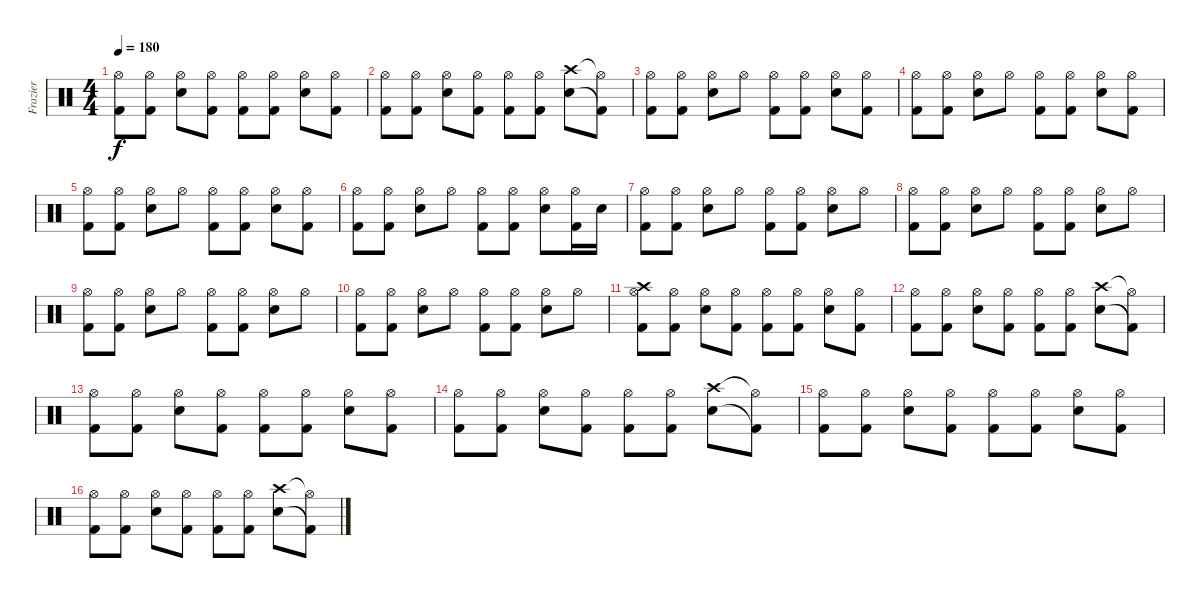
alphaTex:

\track ("Frazier" "Frazier") {instrument percussion}
\staff {score}
\articulation defaults
\ts (4 4)
\tempo 180
\clef neutral
\ks c
("Hi-Hat (open)" "Kick (hit) 2").8{dy f} ("Hi-Hat (open)" "Kick (hit) 2").8 ("Hi-Hat (open)" "Electric Snare (hit)").8 ("Hi-Hat (open)" "Kick (hit) 2").8 ("Hi-Hat (open)" "Kick (hit) 2").8 ("Hi-Hat (open)" "Kick (hit) 2").8 ("Hi-Hat (open)" "Electric Snare (hit)").8 ("Hi-Hat (open)" "Kick (hit) 2").8 |
("Hi-Hat (open)" "Kick (hit) 2").8 ("Hi-Hat (open)" "Kick (hit) 2").8 ("Hi-Hat (open)" "Electric Snare (hit)").8 ("Hi-Hat (open)" "Kick (hit) 2").8 ("Hi-Hat (open)" "Kick (hit) 2").8 ("Hi-Hat (open)" "Kick (hit) 2").8 ("Crash high (hit)" "Electric Snare (hit)").8 ("Hi-Hat (open)"{t} "Kick (hit) 2"{t}).8 |
("Hi-Hat (open)" "Kick (hit) 2").8 ("Hi-Hat (open)" "Kick (hit) 2").8 ("Hi-Hat (open)" "Electric Snare (hit)").8 "Hi-Hat (open)".8 ("Hi-Hat (open)" "Kick (hit) 2").8 ("Hi-Hat (open)" "Kick (hit) 2").8 ("Hi-Hat (open)" "Electric Snare (hit)").8 ("Hi-Hat (open)" "Kick (hit) 2").8 |
("Hi-Hat (open)" "Kick (hit) 2").8 ("Hi-Hat (open)" "Kick (hit) 2").8 ("Hi-Hat (open)" "Electric Snare (hit)").8 "Hi-Hat (open)".8 ("Hi-Hat (open)" "Kick (hit) 2").8 ("Hi-Hat (open)" "Kick (hit) 2").8 ("Hi-Hat (open)" "Electric Snare (hit)").8 ("Hi-Hat (open)" "Kick (hit) 2").8 |
("Hi-Hat (open)" "Kick (hit) 2").8 ("Hi-Hat (open)" "Kick (hit) 2").8 ("Hi-Hat (open)" "Electric Snare (hit)").8 "Hi-Hat (open)".8 ("Hi-Hat (open)" "Kick (hit) 2").8 ("Hi-Hat (open)" "Kick (hit) 2").8 ("Hi-Hat (open)" "Electric Snare (hit)").8 ("Hi-Hat (open)" "Kick (hit) 2").8 |
("Hi-Hat (open)" "Kick (hit) 2").8 ("Hi-Hat (open)" "Kick (hit) 2").8 ("Hi-Hat (open)" "Electric Snare (hit)").8 "Hi-Hat (open)".8 ("Hi-Hat (open)" "Kick (hit) 2").8 ("Hi-Hat (open)" "Kick (hit) 2").8 ("Hi-Hat (open)" "Electric Snare (hit)").8 ("Hi-Hat (open)" "Kick (hit) 2").16 "Electric Snare (hit)".16 |
("Hi-Hat (open)" "Kick (hit) 2").8 ("Hi-Hat (open)" "Kick (hit) 2").8 ("Hi-Hat (open)" "Electric Snare (hit)").8 "Hi-Hat (open)".8 ("Hi-Hat (open)" "Kick (hit) 2").8 ("Hi-Hat (open)" "Kick (hit) 2").8 ("Hi-Hat (open)" "Electric Snare (hit)").8 "Hi-Hat (open)".8 |
("Hi-Hat (open)" "Kick (hit) 2").8 ("Hi-Hat (open)" "Kick (hit) 2").8 ("Hi-Hat (open)" "Electric Snare (hit)").8 "Hi-Hat (open)".8 ("Hi-Hat (open)" "Kick (hit) 2").8 ("Hi-Hat (open)" "Kick (hit) 2").8 ("Hi-Hat (open)" "Electric Snare (hit)").8 "Hi-Hat (open)".8 |
("Hi-Hat (open)" "Kick (hit) 2").8 ("Hi-Hat (open)" "Kick (hit) 2").8 ("Hi-Hat (open)" "Electric Snare (hit)").8 "Hi-Hat (open)".8 ("Hi-Hat (open)" "Kick (hit) 2").8 ("Hi-Hat (open)" "Kick (hit) 2").8 ("Hi-Hat (open)" "Electric Snare (hit)").8 "Hi-Hat (open)".8 |
("Hi-Hat (open)" "Kick (hit) 2").8 ("Hi-Hat (open)" "Kick (hit) 2").8 ("Hi-Hat (open)" "Electric Snare (hit)").8 "Hi-Hat (open)".8 ("Hi-Hat (open)" "Kick (hit) 2").8 ("Hi-Hat (open)" "Kick (hit) 2").8 ("Hi-Hat (open)" "Electric Snare (hit)").8 "Hi-Hat (open)".8 |
("Crash high (hit)" "Hi-Hat (open)" "Kick (hit) 2").8 ("Hi-Hat (open)" "Kick (hit) 2").8 ("Hi-Hat (open)" "Electric Snare (hit)").8 ("Hi-Hat (open)" "Kick (hit) 2").8 ("Hi-Hat (open)" "Kick (hit) 2").8 ("Hi-Hat (open)" "Kick (hit) 2").8 ("Hi-Hat (open)" "Electric Snare (hit)").8 ("Hi-Hat (open)" "Kick (hit) 2").8 |
("Hi-Hat (open)" "Kick (hit) 2").8 ("Hi-Hat (open)" "Kick (hit) 2").8 ("Hi-Hat (open)" "Electric Snare (hit)").8 ("Hi-Hat (open)" "Kick (hit) 2").8 ("Hi-Hat (open)" "Kick (hit) 2").8 ("Hi-Hat (open)" "Kick (hit) 2").8 ("Crash high (hit)" "Electric Snare (hit)").8 ("Hi-Hat (open)"{t} "Kick (hit) 2"{t}).8 |
("Hi-Hat (open)" "Kick (hit) 2").8 ("Hi-Hat (open)" "Kick (hit) 2").8 ("Hi-Hat (open)" "Electric Snare (hit)").8 ("Hi-Hat (open)" "Kick (hit) 2").8 ("Hi-Hat (open)" "Kick (hit) 2").8 ("Hi-Hat (open)" "Kick (hit) 2").8 ("Hi-Hat (open)" "Electric Snare (hit)").8 ("Hi-Hat (open)" "Kick (hit) 2").8 |
("Hi-Hat (open)" "Kick (hit) 2").8 ("Hi-Hat (open)" "Kick (hit) 2").8 ("Hi-Hat (open)" "Electric Snare (hit)").8 ("Hi-Hat (open)" "Kick (hit) 2").8 ("Hi-Hat (open)" "Kick (hit) 2").8 ("Hi-Hat (open)" "Kick (hit) 2").8 ("Crash high (hit)" "Electric Snare (hit)").8 ("Hi-Hat (open)"{t} "Kick (hit) 2"{t}).8 |
("Hi-Hat (open)" "Kick (hit) 2").8 ("Hi-Hat (open)" "Kick (hit) 2").8 ("Hi-Hat (open)" "Electric Snare (hit)").8 ("Hi-Hat (open)" "Kick (hit) 2").8 ("Hi-Hat (open)" "Kick (hit) 2").8 ("Hi-Hat (open)" "Kick (hit) 2").8 ("Hi-Hat (open)" "Electric Snare (hit)").8 ("Hi-Hat (open)" "Kick (hit) 2").8 |
("Hi-Hat (open)" "Kick (hit) 2").8 ("Hi-Hat (open)" "Kick (hit) 2").8 ("Hi-Hat (open)" "Electric Snare (hit)").8 ("Hi-Hat (open)" "Kick (hit) 2").8 ("Hi-Hat (open)" "Kick (hit) 2").8 ("Hi-Hat (open)" "Kick (hit) 2").8 ("Crash high (hit)" "Electric Snare (hit)").8 ("Hi-Hat (open)"{t} "Kick (hit) 2"{t}).8
